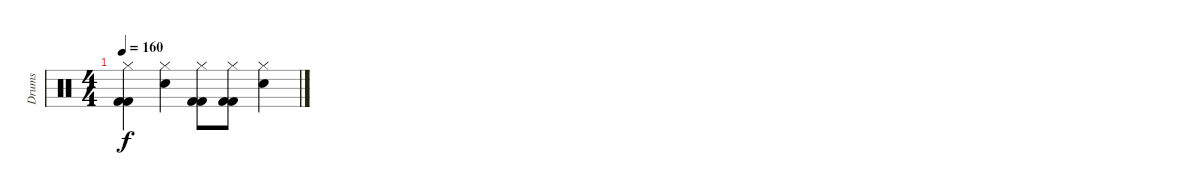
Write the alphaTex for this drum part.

\track ("Drums" "Drums") {instrument percussion}
\staff {score}
\articulation defaults
\ts (4 4)
\tempo 160
\clef neutral
\ks c
("Hi-Hat (closed)" "Kick (hit) 2" "Kick (hit) 2").4{dy f} ("Hi-Hat (closed)" "Snare (hit) 2").4 ("Hi-Hat (closed)" "Kick (hit) 2" "Kick (hit) 2").8 ("Hi-Hat (closed)" "Kick (hit) 2" "Kick (hit) 2").8 ("Hi-Hat (closed)" "Snare (hit) 2").4
